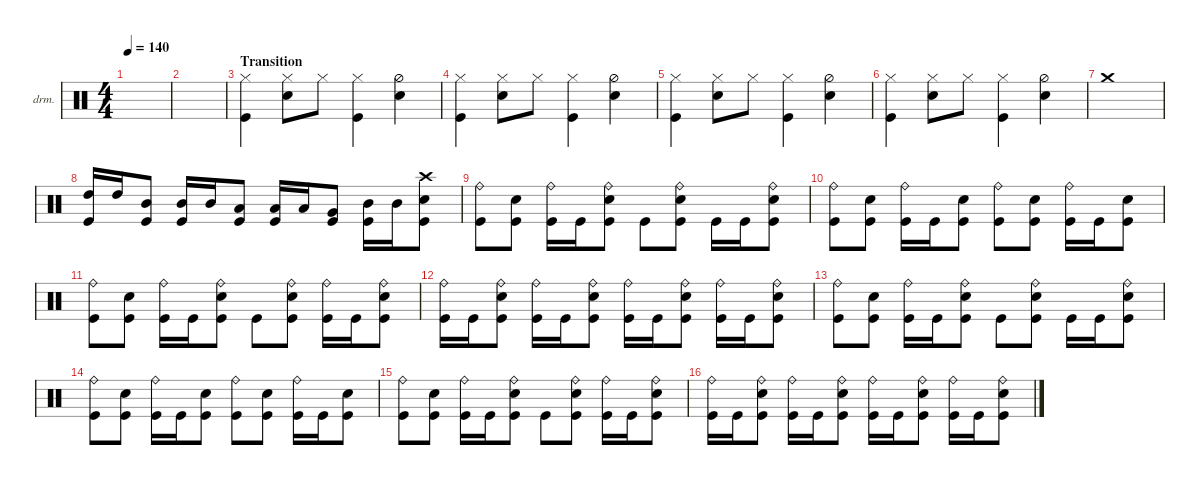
\defaultSystemsLayout 4
\hideDynamics
\bracketExtendMode nobrackets
\firstSystemTrackNameOrientation horizontal
\otherSystemsTrackNameOrientation horizontal
\track ("Drumkit" "drm.") {instrument percussion}
\staff {score}
\articulation defaults
\ts (4 4)
\tempo 140
\clef neutral
\ks c
|
|
\section ("" "Transition")
("Hi-Hat (closed)" "Kick (hit)").4 ("Hi-Hat (closed)" "Snare (hit) 2").8 "Hi-Hat (closed)".8 ("Hi-Hat (closed)" "Kick (hit)").4 ("Hi-Hat (half)" "Snare (hit) 2").4 |
("Hi-Hat (closed)" "Kick (hit)").4 ("Hi-Hat (closed)" "Snare (hit) 2").8 "Hi-Hat (closed)".8 ("Hi-Hat (closed)" "Kick (hit)").4 ("Hi-Hat (half)" "Snare (hit) 2").4 |
("Hi-Hat (closed)" "Kick (hit)").4 ("Hi-Hat (closed)" "Snare (hit) 2").8 "Hi-Hat (closed)".8 ("Hi-Hat (closed)" "Kick (hit)").4 ("Hi-Hat (half)" "Snare (hit) 2").4 |
("Hi-Hat (closed)" "Kick (hit)").4 ("Hi-Hat (closed)" "Snare (hit) 2").8 "Hi-Hat (closed)".8 ("Hi-Hat (closed)" "Kick (hit)").4 ("Hi-Hat (half)" "Snare (hit) 2").4 |
"Crash medium (hit)".1 |
("High Tom (hit)" "Kick (hit)").16 "High Tom (hit)".16 ("Mid Tom (hit)" "Kick (hit)").8 ("Mid Tom (hit)" "Kick (hit)").16 "Mid Tom (hit)".16 ("Low Tom (hit)" "Kick (hit)").8 ("Low Tom (hit)" "Kick (hit)").16 "Low Tom (hit)".16 ("Very Low Tom (hit)" "Kick (hit)").8 ("Kick (hit)" "Mid Tom (hit)").16 "Mid Tom (hit)".16 ("Snare (hit) 2" "Kick (hit)" "Crash high (hit)").8 |
("Kick (hit)" "Ride (bell)").8 ("Snare (hit) 2" "Kick (hit)").8 ("Kick (hit)" "Ride (bell)").16 "Kick (hit)".16 ("Snare (hit) 2" "Kick (hit)" "Ride (bell)").8 "Kick (hit)".8 ("Snare (hit) 2" "Kick (hit)" "Ride (bell)").8 "Kick (hit)".16 "Kick (hit)".16 ("Snare (hit) 2" "Kick (hit)" "Ride (bell)").8 |
("Kick (hit)" "Ride (bell)").8 ("Snare (hit) 2" "Kick (hit)").8 ("Kick (hit)" "Ride (bell)").16 "Kick (hit)".16 ("Snare (hit) 2" "Kick (hit)").8 ("Kick (hit)" "Ride (bell)").8 ("Snare (hit) 2" "Kick (hit)").8 ("Kick (hit)" "Ride (bell)").16 "Kick (hit)".16 ("Snare (hit) 2" "Kick (hit)").8 |
("Kick (hit)" "Ride (bell)").8 ("Snare (hit) 2" "Kick (hit)").8 ("Kick (hit)" "Ride (bell)").16 "Kick (hit)".16 ("Snare (hit) 2" "Kick (hit)" "Ride (bell)").8 "Kick (hit)".8 ("Snare (hit) 2" "Kick (hit)" "Ride (bell)").8 ("Kick (hit)" "Ride (bell)").16 "Kick (hit)".16 ("Snare (hit) 2" "Kick (hit)" "Ride (bell)").8 |
("Kick (hit)" "Ride (bell)").16 "Kick (hit)".16 ("Snare (hit) 2" "Kick (hit)" "Ride (bell)").8 ("Kick (hit)" "Ride (bell)").16 "Kick (hit)".16 ("Snare (hit) 2" "Kick (hit)" "Ride (bell)").8 ("Kick (hit)" "Ride (bell)").16 "Kick (hit)".16 ("Snare (hit) 2" "Kick (hit)" "Ride (bell)").8 ("Kick (hit)" "Ride (bell)").16 "Kick (hit)".16 ("Snare (hit) 2" "Kick (hit)" "Ride (bell)").8 |
("Kick (hit)" "Ride (bell)").8 ("Snare (hit) 2" "Kick (hit)").8 ("Kick (hit)" "Ride (bell)").16 "Kick (hit)".16 ("Snare (hit) 2" "Kick (hit)" "Ride (bell)").8 "Kick (hit)".8 ("Snare (hit) 2" "Kick (hit)" "Ride (bell)").8 "Kick (hit)".16 "Kick (hit)".16 ("Snare (hit) 2" "Kick (hit)" "Ride (bell)").8 |
("Kick (hit)" "Ride (bell)").8 ("Snare (hit) 2" "Kick (hit)").8 ("Kick (hit)" "Ride (bell)").16 "Kick (hit)".16 ("Snare (hit) 2" "Kick (hit)").8 ("Kick (hit)" "Ride (bell)").8 ("Snare (hit) 2" "Kick (hit)").8 ("Kick (hit)" "Ride (bell)").16 "Kick (hit)".16 ("Snare (hit) 2" "Kick (hit)").8 |
("Kick (hit)" "Ride (bell)").8 ("Snare (hit) 2" "Kick (hit)").8 ("Kick (hit)" "Ride (bell)").16 "Kick (hit)".16 ("Snare (hit) 2" "Kick (hit)" "Ride (bell)").8 "Kick (hit)".8 ("Snare (hit) 2" "Kick (hit)" "Ride (bell)").8 ("Kick (hit)" "Ride (bell)").16 "Kick (hit)".16 ("Snare (hit) 2" "Kick (hit)" "Ride (bell)").8 |
("Kick (hit)" "Ride (bell)").16 "Kick (hit)".16 ("Snare (hit) 2" "Kick (hit)" "Ride (bell)").8 ("Kick (hit)" "Ride (bell)").16 "Kick (hit)".16 ("Snare (hit) 2" "Kick (hit)" "Ride (bell)").8 ("Kick (hit)" "Ride (bell)").16 "Kick (hit)".16 ("Snare (hit) 2" "Kick (hit)" "Ride (bell)").8 ("Kick (hit)" "Ride (bell)").16 "Kick (hit)".16 ("Snare (hit) 2" "Kick (hit)" "Ride (bell)").8
